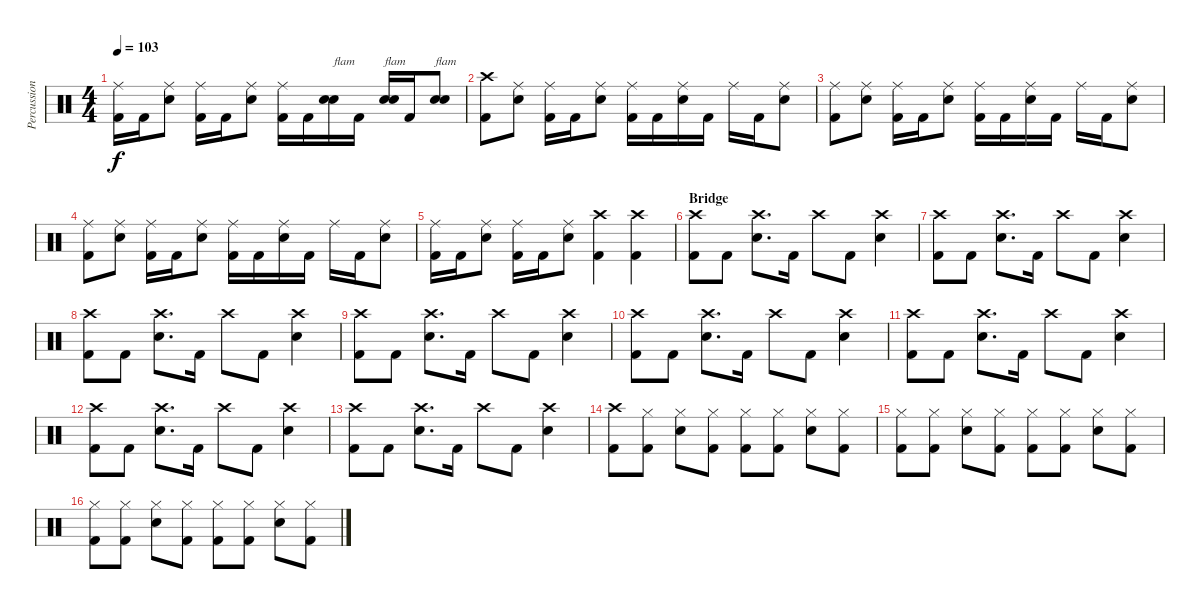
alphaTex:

\track ("Percussion - Brandon Barnes" "Percussion") {instrument percussion}
\staff {score}
\articulation defaults
\ts (4 4)
\tempo 103
\clef neutral
\ks c
("Ride (middle)" "Kick (hit) 2").16{dy f} "Kick (hit) 2".16 ("Ride (middle)" "Electric Snare (hit)").8 ("Ride (middle)" "Kick (hit) 2").16 "Kick (hit) 2".16 ("Ride (middle)" "Electric Snare (hit)").8 ("Ride (middle)" "Kick (hit) 2").16 "Kick (hit) 2".16 ("Electric Snare (hit)" "Electric Snare (hit)").16{bd 30 txt "flam"} "Kick (hit) 2".16 ("Electric Snare (hit)" "Electric Snare (hit)").16{bd 30 txt "flam"} "Kick (hit) 2".16 ("Electric Snare (hit)" "Electric Snare (hit)").8{bd 30 txt "flam"} |
("Crash high (hit)" "Kick (hit) 2").8 ("Ride (middle)" "Electric Snare (hit)").8 ("Ride (middle)" "Kick (hit) 2").16 "Kick (hit) 2".16 ("Ride (middle)" "Electric Snare (hit)").8 ("Ride (middle)" "Kick (hit) 2").16 "Kick (hit) 2".16 ("Ride (middle)" "Electric Snare (hit)").16 "Kick (hit) 2".16 "Ride (middle)".16 "Kick (hit) 2".16 ("Ride (middle)" "Electric Snare (hit)").8 |
("Ride (middle)" "Kick (hit) 2").8 ("Ride (middle)" "Electric Snare (hit)").8 ("Ride (middle)" "Kick (hit) 2").16 "Kick (hit) 2".16 ("Ride (middle)" "Electric Snare (hit)").8 ("Ride (middle)" "Kick (hit) 2").16 "Kick (hit) 2".16 ("Ride (middle)" "Electric Snare (hit)").16 "Kick (hit) 2".16 "Ride (middle)".16 "Kick (hit) 2".16 ("Ride (middle)" "Electric Snare (hit)").8 |
("Ride (middle)" "Kick (hit) 2").8 ("Ride (middle)" "Electric Snare (hit)").8 ("Ride (middle)" "Kick (hit) 2").16 "Kick (hit) 2".16 ("Ride (middle)" "Electric Snare (hit)").8 ("Ride (middle)" "Kick (hit) 2").16 "Kick (hit) 2".16 ("Ride (middle)" "Electric Snare (hit)").16 "Kick (hit) 2".16 "Ride (middle)".16 "Kick (hit) 2".16 ("Ride (middle)" "Electric Snare (hit)").8 |
("Ride (middle)" "Kick (hit) 2").16 "Kick (hit) 2".16 ("Ride (middle)" "Electric Snare (hit)").8 ("Ride (middle)" "Kick (hit) 2").16 "Kick (hit) 2".16 ("Ride (middle)" "Electric Snare (hit)").8 ("Crash high (hit)" "Kick (hit) 2").4 ("Crash high (hit)" "Kick (hit) 2").4 |
\section ("" "Bridge")
("Crash high (hit)" "Kick (hit) 2").8 "Kick (hit) 2".8 ("Crash high (hit)" "Electric Snare (hit)").8{d} "Kick (hit) 2".16 "Crash high (hit)".8 "Kick (hit) 2".8 ("Crash high (hit)" "Electric Snare (hit)").4 |
("Crash high (hit)" "Kick (hit) 2").8 "Kick (hit) 2".8 ("Crash high (hit)" "Electric Snare (hit)").8{d} "Kick (hit) 2".16 "Crash high (hit)".8 "Kick (hit) 2".8 ("Crash high (hit)" "Electric Snare (hit)").4 |
("Crash high (hit)" "Kick (hit) 2").8 "Kick (hit) 2".8 ("Crash high (hit)" "Electric Snare (hit)").8{d} "Kick (hit) 2".16 "Crash high (hit)".8 "Kick (hit) 2".8 ("Crash high (hit)" "Electric Snare (hit)").4 |
("Crash high (hit)" "Kick (hit) 2").8 "Kick (hit) 2".8 ("Crash high (hit)" "Electric Snare (hit)").8{d} "Kick (hit) 2".16 "Crash high (hit)".8 "Kick (hit) 2".8 ("Crash high (hit)" "Electric Snare (hit)").4 |
("Crash high (hit)" "Kick (hit) 2").8 "Kick (hit) 2".8 ("Crash high (hit)" "Electric Snare (hit)").8{d} "Kick (hit) 2".16 "Crash high (hit)".8 "Kick (hit) 2".8 ("Crash high (hit)" "Electric Snare (hit)").4 |
("Crash high (hit)" "Kick (hit) 2").8 "Kick (hit) 2".8 ("Crash high (hit)" "Electric Snare (hit)").8{d} "Kick (hit) 2".16 "Crash high (hit)".8 "Kick (hit) 2".8 ("Crash high (hit)" "Electric Snare (hit)").4 |
("Crash high (hit)" "Kick (hit) 2").8 "Kick (hit) 2".8 ("Crash high (hit)" "Electric Snare (hit)").8{d} "Kick (hit) 2".16 "Crash high (hit)".8 "Kick (hit) 2".8 ("Crash high (hit)" "Electric Snare (hit)").4 |
("Crash high (hit)" "Kick (hit) 2").8 "Kick (hit) 2".8 ("Crash high (hit)" "Electric Snare (hit)").8{d} "Kick (hit) 2".16 "Crash high (hit)".8 "Kick (hit) 2".8 ("Crash high (hit)" "Electric Snare (hit)").4 |
("Crash high (hit)" "Kick (hit) 2").8 ("Hi-Hat (closed)" "Kick (hit) 2").8 ("Hi-Hat (closed)" "Electric Snare (hit)").8 ("Hi-Hat (closed)" "Kick (hit) 2").8 ("Hi-Hat (closed)" "Kick (hit) 2").8 ("Hi-Hat (closed)" "Kick (hit) 2").8 ("Hi-Hat (closed)" "Electric Snare (hit)").8 ("Hi-Hat (closed)" "Kick (hit) 2").8 |
("Hi-Hat (closed)" "Kick (hit) 2").8 ("Hi-Hat (closed)" "Kick (hit) 2").8 ("Hi-Hat (closed)" "Electric Snare (hit)").8 ("Hi-Hat (closed)" "Kick (hit) 2").8 ("Hi-Hat (closed)" "Kick (hit) 2").8 ("Hi-Hat (closed)" "Kick (hit) 2").8 ("Hi-Hat (closed)" "Electric Snare (hit)").8 ("Hi-Hat (closed)" "Kick (hit) 2").8 |
("Hi-Hat (closed)" "Kick (hit) 2").8 ("Hi-Hat (closed)" "Kick (hit) 2").8 ("Hi-Hat (closed)" "Electric Snare (hit)").8 ("Hi-Hat (closed)" "Kick (hit) 2").8 ("Hi-Hat (closed)" "Kick (hit) 2").8 ("Hi-Hat (closed)" "Kick (hit) 2").8 ("Hi-Hat (closed)" "Electric Snare (hit)").8 ("Hi-Hat (closed)" "Kick (hit) 2").8
